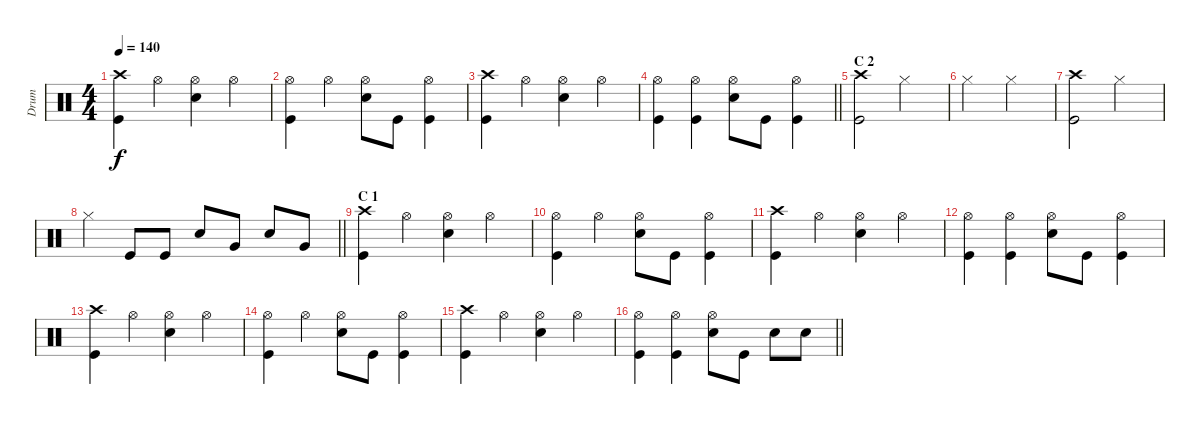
\track ("Drum" "Drum") {instrument percussion}
\staff
\articulation defaults
\ts (4 4)
\tempo 140
\clef neutral
\ks c
("Crash high (hit)" "Kick (hit)").4{dy f} "Hi-Hat (open)".4 ("Hi-Hat (open)" "Snare (hit) 2").4 "Hi-Hat (open)".4 |
("Hi-Hat (open)" "Kick (hit)").4 "Hi-Hat (open)".4 ("Hi-Hat (open)" "Snare (hit) 2").8 "Kick (hit)".8 ("Hi-Hat (open)" "Kick (hit)").4 |
("Crash high (hit)" "Kick (hit)").4 "Hi-Hat (open)".4 ("Hi-Hat (open)" "Snare (hit) 2").4 "Hi-Hat (open)".4 |
\barLineRight lightlight
("Hi-Hat (open)" "Kick (hit)").4 ("Hi-Hat (open)" "Kick (hit)").4 ("Hi-Hat (open)" "Snare (hit) 2").8 "Kick (hit)".8 ("Hi-Hat (open)" "Kick (hit)").4 |
\section ("" "C 2")
("Crash high (hit)" "Kick (hit)").2 "Hi-Hat (closed)".2 |
"Hi-Hat (closed)".2 "Hi-Hat (closed)".2 |
("Crash high (hit)" "Kick (hit)").2 "Hi-Hat (closed)".2 |
\barLineRight lightlight "Hi-Hat (closed)".4 "Kick (hit)".8 "Kick (hit)".8 "Snare (hit) 2".8 "Very Low Tom (hit)".8 "Snare (hit) 2".8 "Very Low Tom (hit)".8
|
\section ("" "C 1")
("Crash high (hit)" "Kick (hit)").4 "Hi-Hat (open)".4 ("Hi-Hat (open)" "Snare (hit) 2").4 "Hi-Hat (open)".4 |
("Hi-Hat (open)" "Kick (hit)").4 "Hi-Hat (open)".4 ("Hi-Hat (open)" "Snare (hit) 2").8 "Kick (hit)".8 ("Hi-Hat (open)" "Kick (hit)").4 |
("Crash high (hit)" "Kick (hit)").4 "Hi-Hat (open)".4 ("Hi-Hat (open)" "Snare (hit) 2").4 "Hi-Hat (open)".4 |
("Hi-Hat (open)" "Kick (hit)").4 ("Hi-Hat (open)" "Kick (hit)").4 ("Hi-Hat (open)" "Snare (hit) 2").8 "Kick (hit)".8 ("Hi-Hat (open)" "Kick (hit)").4 |
("Crash high (hit)" "Kick (hit)").4 "Hi-Hat (open)".4 ("Hi-Hat (open)" "Snare (hit) 2").4 "Hi-Hat (open)".4 |
("Hi-Hat (open)" "Kick (hit)").4 "Hi-Hat (open)".4 ("Hi-Hat (open)" "Snare (hit) 2").8 "Kick (hit)".8 ("Hi-Hat (open)" "Kick (hit)").4 |
("Crash high (hit)" "Kick (hit)").4 "Hi-Hat (open)".4 ("Hi-Hat (open)" "Snare (hit) 2").4 "Hi-Hat (open)".4 |
\barLineRight lightlight
("Hi-Hat (open)" "Kick (hit)").4 ("Hi-Hat (open)" "Kick (hit)").4 ("Hi-Hat (open)" "Snare (hit) 2").8 "Kick (hit)".8 "Snare (hit) 2".8 "Snare (hit) 2".8
